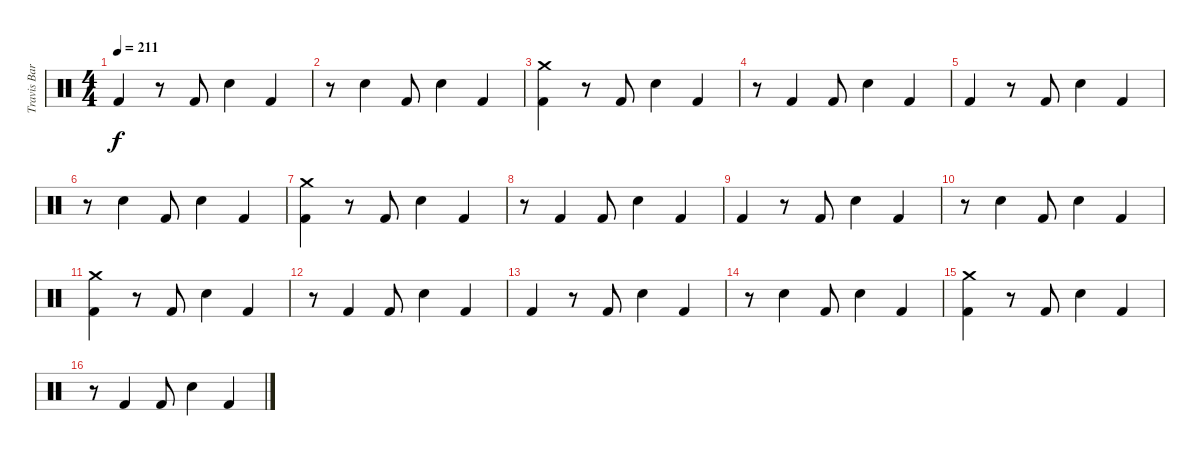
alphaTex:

\track ("Travis Barker (Drums)" "Travis Bar") {instrument percussion}
\staff {score}
\articulation defaults
\ts (4 4)
\tempo 211
\clef neutral
\ks c "Kick (hit) 2".4{dy f}
r.8 "Kick (hit) 2".8 "Electric Snare (hit)".4 "Kick (hit) 2".4 |
r.8 "Electric Snare (hit)".4 "Kick (hit) 2".8 "Electric Snare (hit)".4 "Kick (hit) 2".4 |
("Kick (hit) 2" "Crash medium (hit)").4 r.8 "Kick (hit) 2".8 "Electric Snare (hit)".4 "Kick (hit) 2".4 |
r.8 "Kick (hit) 2".4 "Kick (hit) 2".8 "Electric Snare (hit)".4 "Kick (hit) 2".4 |
"Kick (hit) 2".4 r.8 "Kick (hit) 2".8 "Electric Snare (hit)".4 "Kick (hit) 2".4 |
r.8 "Electric Snare (hit)".4 "Kick (hit) 2".8 "Electric Snare (hit)".4 "Kick (hit) 2".4 |
("Kick (hit) 2" "Crash medium (hit)").4 r.8 "Kick (hit) 2".8 "Electric Snare (hit)".4 "Kick (hit) 2".4 |
r.8 "Kick (hit) 2".4 "Kick (hit) 2".8 "Electric Snare (hit)".4 "Kick (hit) 2".4 |
"Kick (hit) 2".4 r.8 "Kick (hit) 2".8 "Electric Snare (hit)".4 "Kick (hit) 2".4 |
r.8 "Electric Snare (hit)".4 "Kick (hit) 2".8 "Electric Snare (hit)".4 "Kick (hit) 2".4 |
("Kick (hit) 2" "Crash medium (hit)").4 r.8 "Kick (hit) 2".8 "Electric Snare (hit)".4 "Kick (hit) 2".4 |
r.8 "Kick (hit) 2".4 "Kick (hit) 2".8 "Electric Snare (hit)".4 "Kick (hit) 2".4 |
"Kick (hit) 2".4 r.8 "Kick (hit) 2".8 "Electric Snare (hit)".4 "Kick (hit) 2".4 |
r.8 "Electric Snare (hit)".4 "Kick (hit) 2".8 "Electric Snare (hit)".4 "Kick (hit) 2".4 |
("Kick (hit) 2" "Crash medium (hit)").4 r.8 "Kick (hit) 2".8 "Electric Snare (hit)".4 "Kick (hit) 2".4 |
r.8 "Kick (hit) 2".4 "Kick (hit) 2".8 "Electric Snare (hit)".4 "Kick (hit) 2".4
